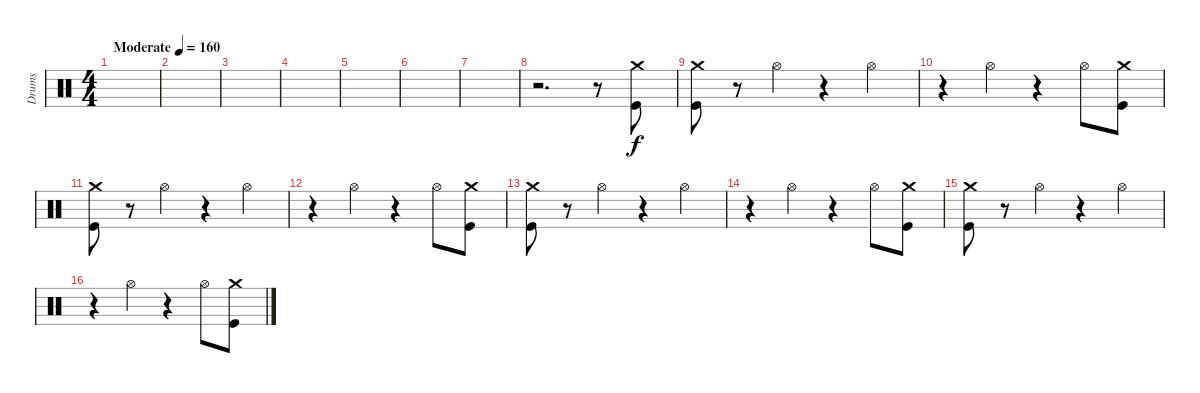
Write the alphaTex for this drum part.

\track ("Drums" "Drums") {instrument percussion}
\staff {score}
\articulation defaults
\ts (4 4)
\tempo (160 "Moderate")
\clef neutral
\ks c
|
|
|
|
|
|
|
r.2{d} r.8 ("Crash medium (hit)" "Kick (hit)").8 |
("Crash medium (hit)" "Kick (hit)").8 r.8 "Hi-Hat (open)".4 r.4 "Hi-Hat (open)".4 |
r.4 "Hi-Hat (open)".4 r.4 "Hi-Hat (open)".8 ("Crash medium (hit)" "Kick (hit)").8 |
("Crash medium (hit)" "Kick (hit)").8 r.8 "Hi-Hat (open)".4 r.4 "Hi-Hat (open)".4 |
r.4 "Hi-Hat (open)".4 r.4 "Hi-Hat (open)".8 ("Crash medium (hit)" "Kick (hit)").8 |
("Crash medium (hit)" "Kick (hit)").8 r.8 "Hi-Hat (open)".4 r.4 "Hi-Hat (open)".4 |
r.4 "Hi-Hat (open)".4 r.4 "Hi-Hat (open)".8 ("Crash medium (hit)" "Kick (hit)").8 |
("Crash medium (hit)" "Kick (hit)").8 r.8 "Hi-Hat (open)".4 r.4 "Hi-Hat (open)".4 |
r.4 "Hi-Hat (open)".4 r.4 "Hi-Hat (open)".8 ("Crash medium (hit)" "Kick (hit)").8
